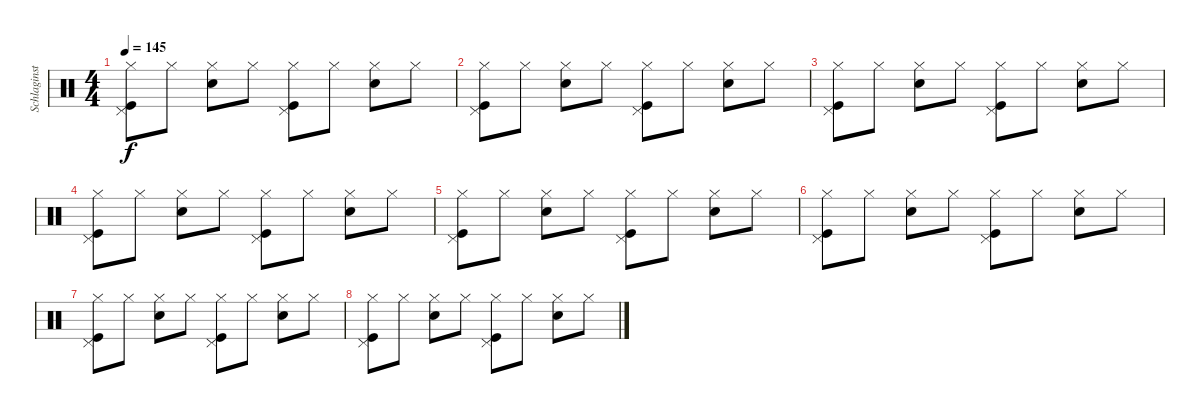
\track ("Schlaginstrumente - Auswahl" "Schlaginst") {instrument percussion}
\staff {score}
\articulation defaults
\ts (4 4)
\tempo 145
\clef neutral
\ks c
("Kick (hit)" "Pedal Hi-Hat (hit)" "Hi-Hat (closed)").8{dy f} "Hi-Hat (closed)".8 ("Snare (hit) 2" "Hi-Hat (closed)").8 "Hi-Hat (closed)".8 ("Kick (hit)" "Pedal Hi-Hat (hit)" "Hi-Hat (closed)").8 "Hi-Hat (closed)".8 ("Snare (hit) 2" "Hi-Hat (closed)").8 "Hi-Hat (closed)".8 |
("Kick (hit)" "Pedal Hi-Hat (hit)" "Hi-Hat (closed)").8 "Hi-Hat (closed)".8 ("Snare (hit) 2" "Hi-Hat (closed)").8 "Hi-Hat (closed)".8 ("Kick (hit)" "Pedal Hi-Hat (hit)" "Hi-Hat (closed)").8 "Hi-Hat (closed)".8 ("Snare (hit) 2" "Hi-Hat (closed)").8 "Hi-Hat (closed)".8 |
("Kick (hit)" "Pedal Hi-Hat (hit)" "Hi-Hat (closed)").8 "Hi-Hat (closed)".8 ("Snare (hit) 2" "Hi-Hat (closed)").8 "Hi-Hat (closed)".8 ("Kick (hit)" "Pedal Hi-Hat (hit)" "Hi-Hat (closed)").8 "Hi-Hat (closed)".8 ("Snare (hit) 2" "Hi-Hat (closed)").8 "Hi-Hat (closed)".8 |
("Kick (hit)" "Pedal Hi-Hat (hit)" "Hi-Hat (closed)").8 "Hi-Hat (closed)".8 ("Snare (hit) 2" "Hi-Hat (closed)").8 "Hi-Hat (closed)".8 ("Kick (hit)" "Pedal Hi-Hat (hit)" "Hi-Hat (closed)").8 "Hi-Hat (closed)".8 ("Snare (hit) 2" "Hi-Hat (closed)").8 "Hi-Hat (closed)".8 |
("Kick (hit)" "Pedal Hi-Hat (hit)" "Hi-Hat (closed)").8 "Hi-Hat (closed)".8 ("Snare (hit) 2" "Hi-Hat (closed)").8 "Hi-Hat (closed)".8 ("Kick (hit)" "Pedal Hi-Hat (hit)" "Hi-Hat (closed)").8 "Hi-Hat (closed)".8 ("Snare (hit) 2" "Hi-Hat (closed)").8 "Hi-Hat (closed)".8 |
("Kick (hit)" "Pedal Hi-Hat (hit)" "Hi-Hat (closed)").8 "Hi-Hat (closed)".8 ("Snare (hit) 2" "Hi-Hat (closed)").8 "Hi-Hat (closed)".8 ("Kick (hit)" "Pedal Hi-Hat (hit)" "Hi-Hat (closed)").8 "Hi-Hat (closed)".8 ("Snare (hit) 2" "Hi-Hat (closed)").8 "Hi-Hat (closed)".8 |
("Kick (hit)" "Pedal Hi-Hat (hit)" "Hi-Hat (closed)").8 "Hi-Hat (closed)".8 ("Snare (hit) 2" "Hi-Hat (closed)").8 "Hi-Hat (closed)".8 ("Kick (hit)" "Pedal Hi-Hat (hit)" "Hi-Hat (closed)").8 "Hi-Hat (closed)".8 ("Snare (hit) 2" "Hi-Hat (closed)").8 "Hi-Hat (closed)".8 |
("Kick (hit)" "Pedal Hi-Hat (hit)" "Hi-Hat (closed)").8 "Hi-Hat (closed)".8 ("Snare (hit) 2" "Hi-Hat (closed)").8 "Hi-Hat (closed)".8 ("Kick (hit)" "Pedal Hi-Hat (hit)" "Hi-Hat (closed)").8 "Hi-Hat (closed)".8 ("Snare (hit) 2" "Hi-Hat (closed)").8 "Hi-Hat (closed)".8
